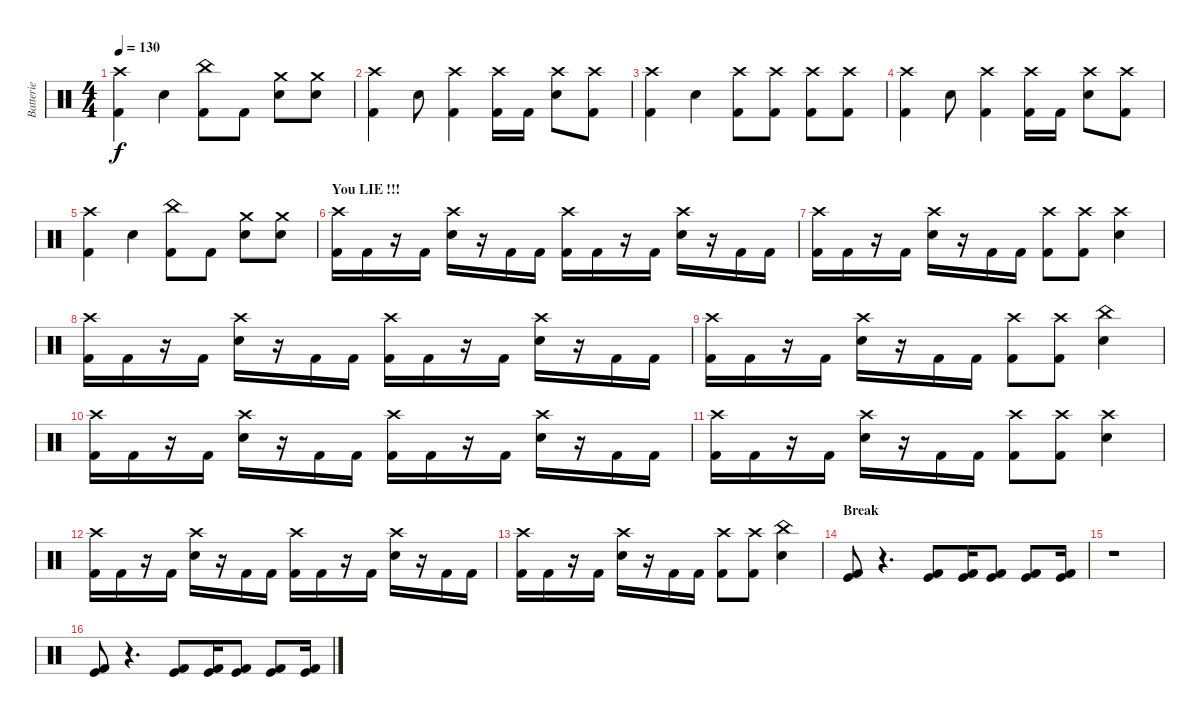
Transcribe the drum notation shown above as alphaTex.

\track ("Batterie" "Batterie") {instrument percussion}
\staff {score}
\articulation defaults
\ts (4 4)
\tempo 130
\clef neutral
\ks c
("Crash high (hit)" "Kick (hit) 2").4{dy f} "Electric Snare (hit)".4 ("China (hit)" "Kick (hit) 2").8 "Kick (hit) 2".8 ("Crash medium (hit)" "Electric Snare (hit)").8 ("Crash medium (hit)" "Electric Snare (hit)").8 |
("Crash high (hit)" "Kick (hit) 2").4 "Electric Snare (hit)".8 ("Crash high (hit)" "Kick (hit) 2").4 ("Crash high (hit)" "Kick (hit) 2").16 "Kick (hit) 2".16 ("Crash high (hit)" "Electric Snare (hit)").8 ("Crash high (hit)" "Kick (hit) 2").8 |
("Crash high (hit)" "Kick (hit) 2").4 "Electric Snare (hit)".4 ("Crash high (hit)" "Kick (hit) 2").8 ("Crash high (hit)" "Kick (hit) 2").8 ("Crash high (hit)" "Kick (hit) 2").8 ("Crash high (hit)" "Kick (hit) 2").8 |
("Crash high (hit)" "Kick (hit) 2").4 "Electric Snare (hit)".8 ("Crash high (hit)" "Kick (hit) 2").4 ("Crash high (hit)" "Kick (hit) 2").16 "Kick (hit) 2".16 ("Crash high (hit)" "Electric Snare (hit)").8 ("Crash high (hit)" "Kick (hit) 2").8 |
("Crash high (hit)" "Kick (hit) 2").4 "Electric Snare (hit)".4 ("China (hit)" "Kick (hit) 2").8 "Kick (hit) 2".8 ("Crash medium (hit)" "Electric Snare (hit)").8 ("Crash medium (hit)" "Electric Snare (hit)").8 |
\section ("" "You LIE !!!")
("Crash high (hit)" "Kick (hit) 2").16 "Kick (hit) 2".16 r.16 "Kick (hit) 2".16 ("Crash high (hit)" "Electric Snare (hit)").16 r.16 "Kick (hit) 2".16 "Kick (hit) 2".16 ("Crash high (hit)" "Kick (hit) 2").16 "Kick (hit) 2".16 r.16 "Kick (hit) 2".16 ("Crash high (hit)" "Electric Snare (hit)").16 r.16 "Kick (hit) 2".16 "Kick (hit) 2".16 |
("Crash high (hit)" "Kick (hit) 2").16 "Kick (hit) 2".16 r.16 "Kick (hit) 2".16 ("Crash high (hit)" "Electric Snare (hit)").16 r.16 "Kick (hit) 2".16 "Kick (hit) 2".16 ("Crash high (hit)" "Kick (hit) 2").8 ("Crash high (hit)" "Kick (hit) 2").8 ("Crash high (hit)" "Electric Snare (hit)").4 |
("Crash high (hit)" "Kick (hit) 2").16 "Kick (hit) 2".16 r.16 "Kick (hit) 2".16 ("Crash high (hit)" "Electric Snare (hit)").16 r.16 "Kick (hit) 2".16 "Kick (hit) 2".16 ("Crash high (hit)" "Kick (hit) 2").16 "Kick (hit) 2".16 r.16 "Kick (hit) 2".16 ("Crash high (hit)" "Electric Snare (hit)").16 r.16 "Kick (hit) 2".16 "Kick (hit) 2".16 |
("Crash high (hit)" "Kick (hit) 2").16 "Kick (hit) 2".16 r.16 "Kick (hit) 2".16 ("Crash high (hit)" "Electric Snare (hit)").16 r.16 "Kick (hit) 2".16 "Kick (hit) 2".16 ("Crash high (hit)" "Kick (hit) 2").8 ("Crash high (hit)" "Kick (hit) 2").8 ("China (hit)" "Electric Snare (hit)").4 |
("Crash high (hit)" "Kick (hit) 2").16 "Kick (hit) 2".16 r.16 "Kick (hit) 2".16 ("Crash high (hit)" "Electric Snare (hit)").16 r.16 "Kick (hit) 2".16 "Kick (hit) 2".16 ("Crash high (hit)" "Kick (hit) 2").16 "Kick (hit) 2".16 r.16 "Kick (hit) 2".16 ("Crash high (hit)" "Electric Snare (hit)").16 r.16 "Kick (hit) 2".16 "Kick (hit) 2".16 |
("Crash high (hit)" "Kick (hit) 2").16 "Kick (hit) 2".16 r.16 "Kick (hit) 2".16 ("Crash high (hit)" "Electric Snare (hit)").16 r.16 "Kick (hit) 2".16 "Kick (hit) 2".16 ("Crash high (hit)" "Kick (hit) 2").8 ("Crash high (hit)" "Kick (hit) 2").8 ("Crash high (hit)" "Electric Snare (hit)").4 |
("Crash high (hit)" "Kick (hit) 2").16 "Kick (hit) 2".16 r.16 "Kick (hit) 2".16 ("Crash high (hit)" "Electric Snare (hit)").16 r.16 "Kick (hit) 2".16 "Kick (hit) 2".16 ("Crash high (hit)" "Kick (hit) 2").16 "Kick (hit) 2".16 r.16 "Kick (hit) 2".16 ("Crash high (hit)" "Electric Snare (hit)").16 r.16 "Kick (hit) 2".16 "Kick (hit) 2".16 |
("Crash high (hit)" "Kick (hit) 2").16 "Kick (hit) 2".16 r.16 "Kick (hit) 2".16 ("Crash high (hit)" "Electric Snare (hit)").16 r.16 "Kick (hit) 2".16 "Kick (hit) 2".16 ("Crash high (hit)" "Kick (hit) 2").8 ("Crash high (hit)" "Kick (hit) 2").8 ("China (hit)" "Electric Snare (hit)").4 |
\section ("" "Break")
("Kick (hit)" "Kick (hit) 2").8 r.4{d} ("Kick (hit)" "Kick (hit) 2").8 ("Kick (hit)" "Kick (hit) 2").16 ("Kick (hit)" "Kick (hit) 2").8 ("Kick (hit)" "Kick (hit) 2").8 ("Kick (hit)" "Kick (hit) 2").16 |
r.1 |
("Kick (hit)" "Kick (hit) 2").8 r.4{d} ("Kick (hit)" "Kick (hit) 2").8 ("Kick (hit)" "Kick (hit) 2").16 ("Kick (hit)" "Kick (hit) 2").8 ("Kick (hit)" "Kick (hit) 2").8 ("Kick (hit)" "Kick (hit) 2").16
